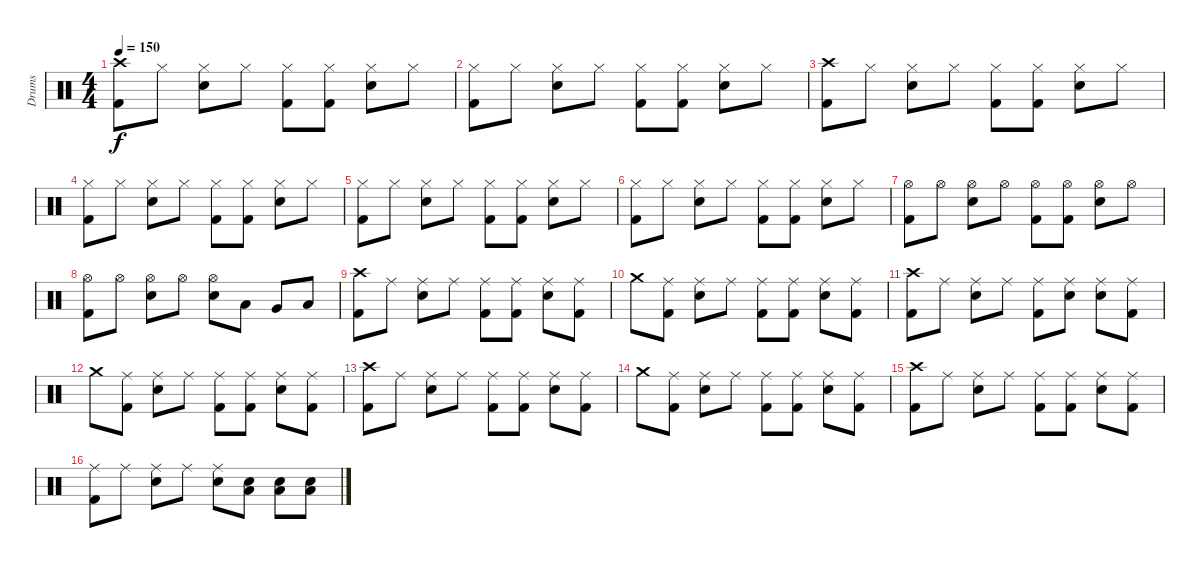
\track ("Drums" "Drums") {instrument percussion}
\staff {score}
\articulation defaults
\ts (4 4)
\tempo 150
\clef neutral
\ks c
("Crash high (hit)" "Kick (hit) 2").8{dy f} "Hi-Hat (closed)".8 ("Hi-Hat (closed)" "Electric Snare (hit)").8 "Hi-Hat (closed)".8 ("Hi-Hat (closed)" "Kick (hit) 2").8 ("Hi-Hat (closed)" "Kick (hit) 2").8 ("Hi-Hat (closed)" "Electric Snare (hit)").8 "Hi-Hat (closed)".8 |
("Hi-Hat (closed)" "Kick (hit) 2").8 "Hi-Hat (closed)".8 ("Hi-Hat (closed)" "Electric Snare (hit)").8 "Hi-Hat (closed)".8 ("Hi-Hat (closed)" "Kick (hit) 2").8 ("Hi-Hat (closed)" "Kick (hit) 2").8 ("Hi-Hat (closed)" "Electric Snare (hit)").8 "Hi-Hat (closed)".8 |
("Crash high (hit)" "Kick (hit) 2").8 "Hi-Hat (closed)".8 ("Hi-Hat (closed)" "Electric Snare (hit)").8 "Hi-Hat (closed)".8 ("Hi-Hat (closed)" "Kick (hit) 2").8 ("Hi-Hat (closed)" "Kick (hit) 2").8 ("Hi-Hat (closed)" "Electric Snare (hit)").8 "Hi-Hat (closed)".8 |
("Hi-Hat (closed)" "Kick (hit) 2").8 "Hi-Hat (closed)".8 ("Hi-Hat (closed)" "Electric Snare (hit)").8 "Hi-Hat (closed)".8 ("Hi-Hat (closed)" "Kick (hit) 2").8 ("Hi-Hat (closed)" "Kick (hit) 2").8 ("Hi-Hat (closed)" "Electric Snare (hit)").8 "Hi-Hat (closed)".8 |
("Hi-Hat (closed)" "Kick (hit) 2").8 "Hi-Hat (closed)".8 ("Hi-Hat (closed)" "Electric Snare (hit)").8 "Hi-Hat (closed)".8 ("Hi-Hat (closed)" "Kick (hit) 2").8 ("Hi-Hat (closed)" "Kick (hit) 2").8 ("Hi-Hat (closed)" "Electric Snare (hit)").8 "Hi-Hat (closed)".8 |
("Hi-Hat (closed)" "Kick (hit) 2").8 "Hi-Hat (closed)".8 ("Hi-Hat (closed)" "Electric Snare (hit)").8 "Hi-Hat (closed)".8 ("Hi-Hat (closed)" "Kick (hit) 2").8 ("Hi-Hat (closed)" "Kick (hit) 2").8 ("Hi-Hat (closed)" "Electric Snare (hit)").8 "Hi-Hat (closed)".8 |
("Hi-Hat (open)" "Kick (hit) 2").8 "Hi-Hat (open)".8 ("Hi-Hat (open)" "Electric Snare (hit)").8 "Hi-Hat (open)".8 ("Hi-Hat (open)" "Kick (hit) 2").8 ("Hi-Hat (open)" "Kick (hit) 2").8 ("Hi-Hat (open)" "Electric Snare (hit)").8 "Hi-Hat (open)".8 |
("Hi-Hat (open)" "Kick (hit) 2").8 "Hi-Hat (open)".8 ("Hi-Hat (open)" "Electric Snare (hit)").8 "Hi-Hat (open)".8 ("Hi-Hat (open)" "Electric Snare (hit)").8 "Low Tom (hit)".8 "Very Low Tom (hit)".8 "Low Floor Tom (hit)".8 |
("Crash high (hit)" "Kick (hit) 2").8 "Ride (middle)".8 ("Ride (middle)" "Electric Snare (hit)").8 "Ride (middle)".8 ("Ride (middle)" "Kick (hit) 2").8 ("Ride (middle)" "Kick (hit) 2").8 ("Ride (middle)" "Electric Snare (hit)").8 ("Ride (middle)" "Kick (hit) 2").8 |
"Crash medium (hit)".8 ("Ride (middle)" "Kick (hit) 2").8 ("Ride (middle)" "Electric Snare (hit)").8 "Ride (middle)".8 ("Ride (middle)" "Kick (hit) 2").8 ("Ride (middle)" "Kick (hit) 2").8 ("Ride (middle)" "Electric Snare (hit)").8 ("Ride (middle)" "Kick (hit) 2").8 |
("Crash high (hit)" "Kick (hit) 2").8 "Ride (middle)".8 ("Ride (middle)" "Electric Snare (hit)").8 "Ride (middle)".8 ("Ride (middle)" "Kick (hit) 2").8 ("Ride (middle)" "Electric Snare (hit)").8 ("Ride (middle)" "Electric Snare (hit)").8 ("Ride (middle)" "Kick (hit) 2").8 |
"Crash medium (hit)".8 ("Ride (middle)" "Kick (hit) 2").8 ("Ride (middle)" "Electric Snare (hit)").8 "Ride (middle)".8 ("Ride (middle)" "Kick (hit) 2").8 ("Ride (middle)" "Kick (hit) 2").8 ("Ride (middle)" "Electric Snare (hit)").8 ("Ride (middle)" "Kick (hit) 2").8 |
("Crash high (hit)" "Kick (hit) 2").8 "Ride (middle)".8 ("Ride (middle)" "Electric Snare (hit)").8 "Ride (middle)".8 ("Ride (middle)" "Kick (hit) 2").8 ("Ride (middle)" "Kick (hit) 2").8 ("Ride (middle)" "Electric Snare (hit)").8 ("Ride (middle)" "Kick (hit) 2").8 |
"Crash medium (hit)".8 ("Ride (middle)" "Kick (hit) 2").8 ("Ride (middle)" "Electric Snare (hit)").8 "Ride (middle)".8 ("Ride (middle)" "Kick (hit) 2").8 ("Ride (middle)" "Kick (hit) 2").8 ("Ride (middle)" "Electric Snare (hit)").8 ("Ride (middle)" "Kick (hit) 2").8 |
("Crash high (hit)" "Kick (hit) 2").8 "Ride (middle)".8 ("Ride (middle)" "Electric Snare (hit)").8 "Ride (middle)".8 ("Ride (middle)" "Kick (hit) 2").8 ("Ride (middle)" "Kick (hit) 2").8 ("Ride (middle)" "Electric Snare (hit)").8 ("Ride (middle)" "Kick (hit) 2").8 |
("Ride (middle)" "Kick (hit) 2").8 "Ride (middle)".8 ("Ride (middle)" "Electric Snare (hit)").8 "Ride (middle)".8 ("Ride (middle)" "Electric Snare (hit)").8 ("Low Floor Tom (hit)" "Electric Snare (hit)").8 ("Low Floor Tom (hit)" "Electric Snare (hit)").8 ("Low Floor Tom (hit)" "Electric Snare (hit)").8
